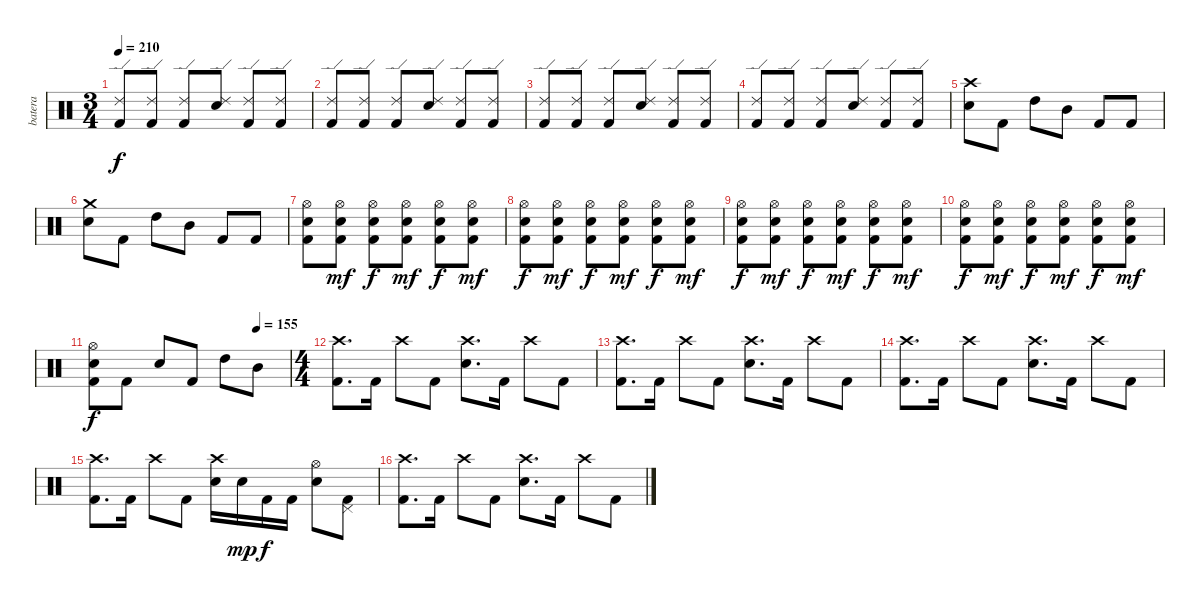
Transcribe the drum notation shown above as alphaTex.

\track ("batera" "batera") {instrument percussion}
\staff {score}
\articulation defaults
\ts (3 4)
\tempo 210
\clef neutral
\ks c
("Ride (edge) 2" "Kick (hit) 2").8{dy f} ("Ride (edge) 2" "Kick (hit) 2").8 ("Ride (edge) 2" "Kick (hit) 2").8 ("Ride (edge) 2" "Electric Snare (hit)").8 ("Ride (edge) 2" "Kick (hit) 2").8 ("Ride (edge) 2" "Kick (hit) 2").8 |
("Ride (edge) 2" "Kick (hit) 2").8 ("Ride (edge) 2" "Kick (hit) 2").8 ("Ride (edge) 2" "Kick (hit) 2").8 ("Ride (edge) 2" "Electric Snare (hit)").8 ("Ride (edge) 2" "Kick (hit) 2").8 ("Ride (edge) 2" "Kick (hit) 2").8 |
("Ride (edge) 2" "Kick (hit) 2").8 ("Ride (edge) 2" "Kick (hit) 2").8 ("Ride (edge) 2" "Kick (hit) 2").8 ("Ride (edge) 2" "Electric Snare (hit)").8 ("Ride (edge) 2" "Kick (hit) 2").8 ("Ride (edge) 2" "Kick (hit) 2").8 |
("Ride (edge) 2" "Kick (hit) 2").8 ("Ride (edge) 2" "Kick (hit) 2").8 ("Ride (edge) 2" "Kick (hit) 2").8 ("Ride (edge) 2" "Electric Snare (hit)").8 ("Ride (edge) 2" "Kick (hit) 2").8 ("Ride (edge) 2" "Kick (hit) 2").8 |
("Crash high (hit)" "Electric Snare (hit)").8 "Kick (hit) 2".8 "High Tom (hit)".8 "Mid Tom (hit)".8 "Kick (hit) 2".8 "Kick (hit) 2".8 |
("Crash medium (hit)" "Electric Snare (hit)").8 "Kick (hit) 2".8 "High Tom (hit)".8 "Mid Tom (hit)".8 "Kick (hit) 2".8 "Kick (hit) 2".8 |
("Hi-Hat (open)" "Electric Snare (hit)" "Kick (hit) 2").8 ("Hi-Hat (open)" "Electric Snare (hit)" "Kick (hit) 2").8{dy mf} ("Hi-Hat (open)" "Electric Snare (hit)" "Kick (hit) 2").8{dy f} ("Hi-Hat (open)" "Electric Snare (hit)" "Kick (hit) 2").8{dy mf} ("Hi-Hat (open)" "Electric Snare (hit)" "Kick (hit) 2").8{dy f} ("Hi-Hat (open)" "Electric Snare (hit)" "Kick (hit) 2").8{dy mf} |
("Hi-Hat (open)" "Electric Snare (hit)" "Kick (hit) 2").8{dy f} ("Hi-Hat (open)" "Electric Snare (hit)" "Kick (hit) 2").8{dy mf} ("Hi-Hat (open)" "Electric Snare (hit)" "Kick (hit) 2").8{dy f} ("Hi-Hat (open)" "Electric Snare (hit)" "Kick (hit) 2").8{dy mf} ("Hi-Hat (open)" "Electric Snare (hit)" "Kick (hit) 2").8{dy f} ("Hi-Hat (open)" "Electric Snare (hit)" "Kick (hit) 2").8{dy mf} |
("Hi-Hat (open)" "Electric Snare (hit)" "Kick (hit) 2").8{dy f} ("Hi-Hat (open)" "Electric Snare (hit)" "Kick (hit) 2").8{dy mf} ("Hi-Hat (open)" "Electric Snare (hit)" "Kick (hit) 2").8{dy f} ("Hi-Hat (open)" "Electric Snare (hit)" "Kick (hit) 2").8{dy mf} ("Hi-Hat (open)" "Electric Snare (hit)" "Kick (hit) 2").8{dy f} ("Hi-Hat (open)" "Electric Snare (hit)" "Kick (hit) 2").8{dy mf} |
("Hi-Hat (open)" "Electric Snare (hit)" "Kick (hit) 2").8{dy f} ("Hi-Hat (open)" "Electric Snare (hit)" "Kick (hit) 2").8{dy mf} ("Hi-Hat (open)" "Electric Snare (hit)" "Kick (hit) 2").8{dy f} ("Hi-Hat (open)" "Electric Snare (hit)" "Kick (hit) 2").8{dy mf} ("Hi-Hat (open)" "Electric Snare (hit)" "Kick (hit) 2").8{dy f} ("Hi-Hat (open)" "Electric Snare (hit)" "Kick (hit) 2").8{dy mf} |
\tempo (155 0.8333333333333334)
("Hi-Hat (open)" "Electric Snare (hit)" "Kick (hit) 2").8{dy f} "Kick (hit) 2".8 "Electric Snare (hit)".8 "Kick (hit) 2".8 "High Tom (hit)".8 "Mid Tom (hit)".8 |
\ts (4 4)
("Crash high (hit)" "Kick (hit) 2").8{d} "Kick (hit) 2".16 "Crash high (hit)".8 "Kick (hit) 2".8 ("Crash high (hit)" "Electric Snare (hit)").8{d} "Kick (hit) 2".16 "Crash high (hit)".8 "Kick (hit) 2".8 |
("Crash high (hit)" "Kick (hit) 2").8{d} "Kick (hit) 2".16 "Crash high (hit)".8 "Kick (hit) 2".8 ("Crash high (hit)" "Electric Snare (hit)").8{d} "Kick (hit) 2".16 "Crash high (hit)".8 "Kick (hit) 2".8 |
("Crash high (hit)" "Kick (hit) 2").8{d} "Kick (hit) 2".16 "Crash high (hit)".8 "Kick (hit) 2".8 ("Crash high (hit)" "Electric Snare (hit)").8{d} "Kick (hit) 2".16 "Crash high (hit)".8 "Kick (hit) 2".8 |
("Crash high (hit)" "Kick (hit) 2").8{d} "Kick (hit) 2".16 "Crash high (hit)".8 "Kick (hit) 2".8 ("Crash high (hit)" "Electric Snare (hit)").16 "Electric Snare (hit)".16{dy mp} "Kick (hit) 2".16{dy f} "Kick (hit) 2".16 ("Hi-Hat (open)" "Electric Snare (hit)").8 ("Pedal Hi-Hat (hit)" "Kick (hit) 2").8 |
("Crash high (hit)" "Kick (hit) 2").8{d} "Kick (hit) 2".16 "Crash high (hit)".8 "Kick (hit) 2".8 ("Crash high (hit)" "Electric Snare (hit)").8{d} "Kick (hit) 2".16 "Crash high (hit)".8 "Kick (hit) 2".8
